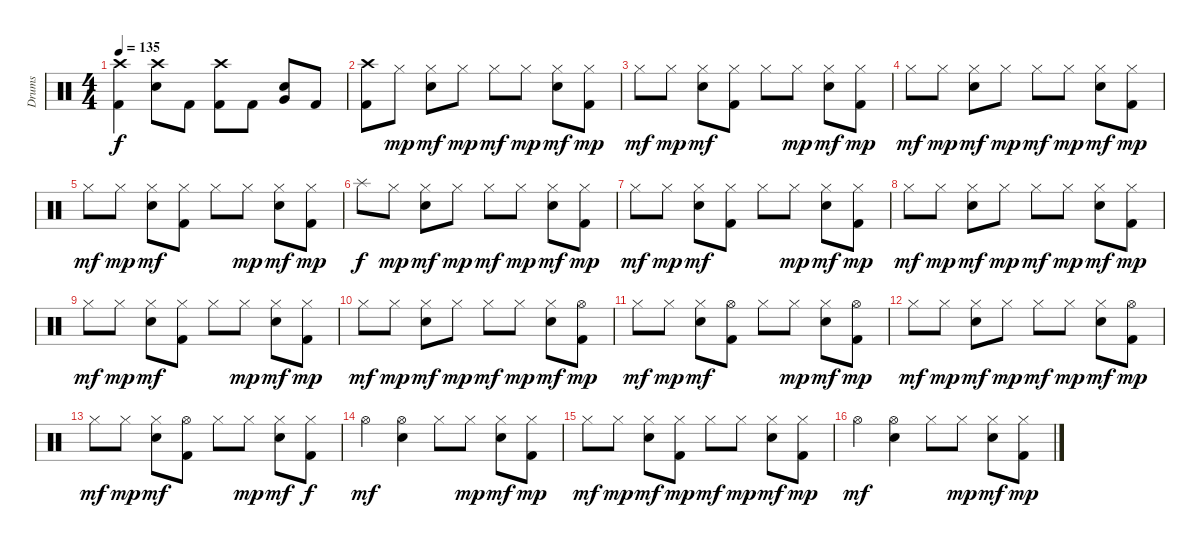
\track ("Drums" "Drums") {instrument percussion}
\staff {score}
\articulation defaults
\ts (4 4)
\tempo 135
\clef neutral
\ks c
("Crash high (hit)" "Kick (hit) 2").4{dy f} ("Crash high (hit)" "Electric Snare (hit)").8 "Kick (hit) 2".8 ("Crash high (hit)" "Kick (hit) 2").8 "Kick (hit) 2".8 ("Very Low Tom (hit)" "Electric Snare (hit)").8 "Kick (hit) 2".8 |
("Crash high (hit)" "Kick (hit) 2").8 "Hi-Hat (closed)".8{dy mp} ("Hi-Hat (closed)" "Electric Snare (hit)").8{dy mf} "Hi-Hat (closed)".8{dy mp} "Hi-Hat (closed)".8{dy mf} "Hi-Hat (closed)".8{dy mp} ("Hi-Hat (closed)" "Electric Snare (hit)").8{dy mf} ("Hi-Hat (closed)" "Kick (hit) 2").8{dy mp} |
"Hi-Hat (closed)".8{dy mf} "Hi-Hat (closed)".8{dy mp} ("Hi-Hat (closed)" "Electric Snare (hit)").8{dy mf} ("Hi-Hat (closed)" "Kick (hit) 2").8 "Hi-Hat (closed)".8 "Hi-Hat (closed)".8{dy mp} ("Hi-Hat (closed)" "Electric Snare (hit)").8{dy mf} ("Hi-Hat (closed)" "Kick (hit) 2").8{dy mp} |
"Hi-Hat (closed)".8{dy mf} "Hi-Hat (closed)".8{dy mp} ("Hi-Hat (closed)" "Electric Snare (hit)").8{dy mf} "Hi-Hat (closed)".8{dy mp} "Hi-Hat (closed)".8{dy mf} "Hi-Hat (closed)".8{dy mp} ("Hi-Hat (closed)" "Electric Snare (hit)").8{dy mf} ("Hi-Hat (closed)" "Kick (hit) 2").8{dy mp} |
"Hi-Hat (closed)".8{dy mf} "Hi-Hat (closed)".8{dy mp} ("Hi-Hat (closed)" "Electric Snare (hit)").8{dy mf} ("Hi-Hat (closed)" "Kick (hit) 2").8 "Hi-Hat (closed)".8 "Hi-Hat (closed)".8{dy mp} ("Hi-Hat (closed)" "Electric Snare (hit)").8{dy mf} ("Hi-Hat (closed)" "Kick (hit) 2").8{dy mp} |
"Splash (hit)".8{dy f} "Hi-Hat (closed)".8{dy mp} ("Hi-Hat (closed)" "Electric Snare (hit)").8{dy mf} "Hi-Hat (closed)".8{dy mp} "Hi-Hat (closed)".8{dy mf} "Hi-Hat (closed)".8{dy mp} ("Hi-Hat (closed)" "Electric Snare (hit)").8{dy mf} ("Hi-Hat (closed)" "Kick (hit) 2").8{dy mp} |
"Hi-Hat (closed)".8{dy mf} "Hi-Hat (closed)".8{dy mp} ("Hi-Hat (closed)" "Electric Snare (hit)").8{dy mf} ("Hi-Hat (closed)" "Kick (hit) 2").8 "Hi-Hat (closed)".8 "Hi-Hat (closed)".8{dy mp} ("Hi-Hat (closed)" "Electric Snare (hit)").8{dy mf} ("Hi-Hat (closed)" "Kick (hit) 2").8{dy mp} |
"Hi-Hat (closed)".8{dy mf} "Hi-Hat (closed)".8{dy mp} ("Hi-Hat (closed)" "Electric Snare (hit)").8{dy mf} "Hi-Hat (closed)".8{dy mp} "Hi-Hat (closed)".8{dy mf} "Hi-Hat (closed)".8{dy mp} ("Hi-Hat (closed)" "Electric Snare (hit)").8{dy mf} ("Hi-Hat (closed)" "Kick (hit) 2").8{dy mp} |
"Hi-Hat (closed)".8{dy mf} "Hi-Hat (closed)".8{dy mp} ("Hi-Hat (closed)" "Electric Snare (hit)").8{dy mf} ("Hi-Hat (closed)" "Kick (hit) 2").8 "Hi-Hat (closed)".8 "Hi-Hat (closed)".8{dy mp} ("Hi-Hat (closed)" "Electric Snare (hit)").8{dy mf} ("Hi-Hat (closed)" "Kick (hit) 2").8{dy mp} |
"Hi-Hat (closed)".8{dy mf} "Hi-Hat (closed)".8{dy mp} ("Hi-Hat (closed)" "Electric Snare (hit)").8{dy mf} "Hi-Hat (closed)".8{dy mp} "Hi-Hat (closed)".8{dy mf} "Hi-Hat (closed)".8{dy mp} ("Hi-Hat (closed)" "Electric Snare (hit)").8{dy mf} ("Hi-Hat (open)" "Kick (hit) 2").8{dy mp} |
"Hi-Hat (closed)".8{dy mf} "Hi-Hat (closed)".8{dy mp} ("Hi-Hat (closed)" "Electric Snare (hit)").8{dy mf} ("Hi-Hat (open)" "Kick (hit) 2").8 "Hi-Hat (closed)".8 "Hi-Hat (closed)".8{dy mp} ("Hi-Hat (closed)" "Electric Snare (hit)").8{dy mf} ("Hi-Hat (open)" "Kick (hit) 2").8{dy mp} |
"Hi-Hat (closed)".8{dy mf} "Hi-Hat (closed)".8{dy mp} ("Hi-Hat (closed)" "Electric Snare (hit)").8{dy mf} "Hi-Hat (closed)".8{dy mp} "Hi-Hat (closed)".8{dy mf} "Hi-Hat (closed)".8{dy mp} ("Hi-Hat (closed)" "Electric Snare (hit)").8{dy mf} ("Hi-Hat (open)" "Kick (hit) 2").8{dy mp} |
"Hi-Hat (closed)".8{dy mf} "Hi-Hat (closed)".8{dy mp} ("Hi-Hat (closed)" "Electric Snare (hit)").8{dy mf} ("Hi-Hat (open)" "Kick (hit) 2").8 "Hi-Hat (closed)".8 "Hi-Hat (closed)".8{dy mp} ("Hi-Hat (closed)" "Electric Snare (hit)").8{dy mf} ("Hi-Hat (closed)" "Kick (hit) 2").8{dy f} |
"Hi-Hat (open)".4{dy mf} ("Hi-Hat (open)" "Electric Snare (hit)").4 "Hi-Hat (closed)".8 "Hi-Hat (closed)".8{dy mp} ("Hi-Hat (closed)" "Electric Snare (hit)").8{dy mf} ("Hi-Hat (closed)" "Kick (hit) 2").8{dy mp} |
"Hi-Hat (closed)".8{dy mf} "Hi-Hat (closed)".8{dy mp} ("Hi-Hat (closed)" "Electric Snare (hit)").8{dy mf} ("Hi-Hat (closed)" "Kick (hit) 2").8{dy mp} "Hi-Hat (closed)".8{dy mf} "Hi-Hat (closed)".8{dy mp} ("Hi-Hat (closed)" "Electric Snare (hit)").8{dy mf} ("Hi-Hat (closed)" "Kick (hit) 2").8{dy mp} |
"Hi-Hat (open)".4{dy mf} ("Hi-Hat (open)" "Electric Snare (hit)").4 "Hi-Hat (closed)".8 "Hi-Hat (closed)".8{dy mp} ("Hi-Hat (closed)" "Electric Snare (hit)").8{dy mf} ("Hi-Hat (closed)" "Kick (hit) 2").8{dy mp}
